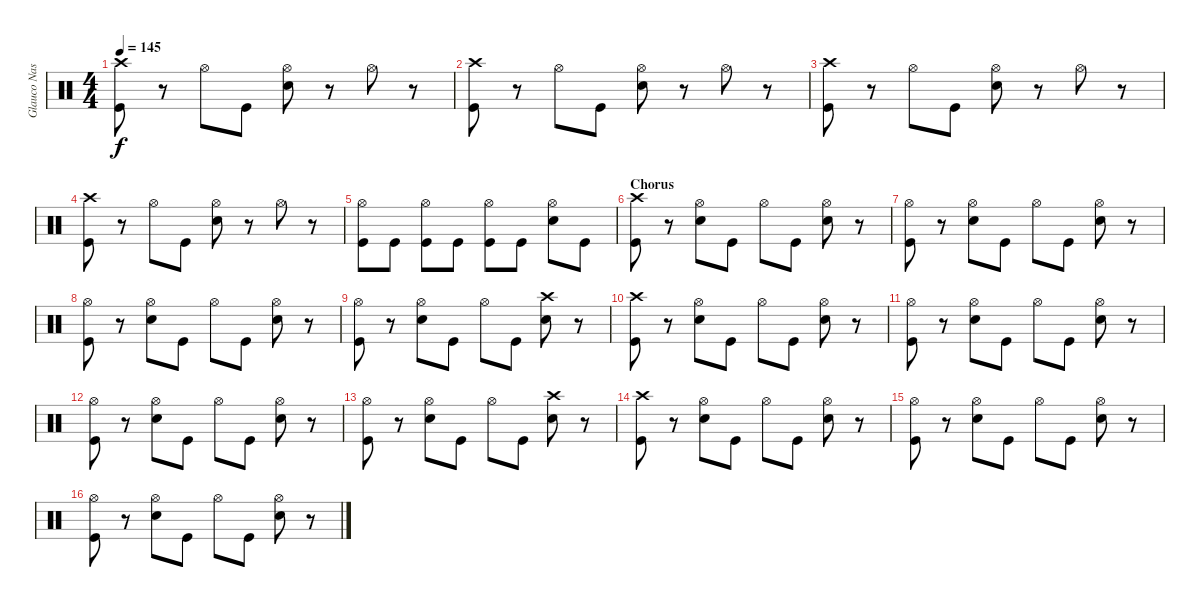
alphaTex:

\track ("Glauco Nastácia" "Glauco Nas") {instrument percussion}
\staff {score}
\articulation defaults
\ts (4 4)
\tempo 145
\clef neutral
\ks c
("Crash high (hit)" "Kick (hit)").8{dy f} r.8 "Hi-Hat (open)".8 "Kick (hit)".8 ("Hi-Hat (open)" "Electric Snare (hit)").8 r.8 "Hi-Hat (open)".8 r.8 |
("Crash high (hit)" "Kick (hit)").8 r.8 "Hi-Hat (open)".8 "Kick (hit)".8 ("Hi-Hat (open)" "Electric Snare (hit)").8 r.8 "Hi-Hat (open)".8 r.8 |
("Crash high (hit)" "Kick (hit)").8 r.8 "Hi-Hat (open)".8 "Kick (hit)".8 ("Hi-Hat (open)" "Electric Snare (hit)").8 r.8 "Hi-Hat (open)".8 r.8 |
("Crash high (hit)" "Kick (hit)").8 r.8 "Hi-Hat (open)".8 "Kick (hit)".8 ("Hi-Hat (open)" "Electric Snare (hit)").8 r.8 "Hi-Hat (open)".8 r.8 |
("Hi-Hat (open)" "Kick (hit)").8 "Kick (hit)".8 ("Hi-Hat (open)" "Kick (hit)").8 "Kick (hit)".8 ("Hi-Hat (open)" "Kick (hit)").8 "Kick (hit)".8 ("Hi-Hat (open)" "Electric Snare (hit)").8 "Kick (hit)".8 |
\section ("" "Chorus")
("Crash high (hit)" "Kick (hit)").8 r.8 ("Hi-Hat (open)" "Electric Snare (hit)").8 "Kick (hit)".8 "Hi-Hat (open)".8 "Kick (hit)".8 ("Hi-Hat (open)" "Electric Snare (hit)").8 r.8 |
("Hi-Hat (open)" "Kick (hit)").8 r.8 ("Hi-Hat (open)" "Electric Snare (hit)").8 "Kick (hit)".8 "Hi-Hat (open)".8 "Kick (hit)".8 ("Hi-Hat (open)" "Electric Snare (hit)").8 r.8 |
("Hi-Hat (open)" "Kick (hit)").8 r.8 ("Hi-Hat (open)" "Electric Snare (hit)").8 "Kick (hit)".8 "Hi-Hat (open)".8 "Kick (hit)".8 ("Hi-Hat (open)" "Electric Snare (hit)").8 r.8 |
("Hi-Hat (open)" "Kick (hit)").8 r.8 ("Hi-Hat (open)" "Electric Snare (hit)").8 "Kick (hit)".8 "Hi-Hat (open)".8 "Kick (hit)".8 ("Crash high (hit)" "Electric Snare (hit)").8 r.8 |
("Crash high (hit)" "Kick (hit)").8 r.8 ("Hi-Hat (open)" "Electric Snare (hit)").8 "Kick (hit)".8 "Hi-Hat (open)".8 "Kick (hit)".8 ("Hi-Hat (open)" "Electric Snare (hit)").8 r.8 |
("Hi-Hat (open)" "Kick (hit)").8 r.8 ("Hi-Hat (open)" "Electric Snare (hit)").8 "Kick (hit)".8 "Hi-Hat (open)".8 "Kick (hit)".8 ("Hi-Hat (open)" "Electric Snare (hit)").8 r.8 |
("Hi-Hat (open)" "Kick (hit)").8 r.8 ("Hi-Hat (open)" "Electric Snare (hit)").8 "Kick (hit)".8 "Hi-Hat (open)".8 "Kick (hit)".8 ("Hi-Hat (open)" "Electric Snare (hit)").8 r.8 |
("Hi-Hat (open)" "Kick (hit)").8 r.8 ("Hi-Hat (open)" "Electric Snare (hit)").8 "Kick (hit)".8 "Hi-Hat (open)".8 "Kick (hit)".8 ("Crash high (hit)" "Electric Snare (hit)").8 r.8 |
("Crash high (hit)" "Kick (hit)").8 r.8 ("Hi-Hat (open)" "Electric Snare (hit)").8 "Kick (hit)".8 "Hi-Hat (open)".8 "Kick (hit)".8 ("Hi-Hat (open)" "Electric Snare (hit)").8 r.8 |
("Hi-Hat (open)" "Kick (hit)").8 r.8 ("Hi-Hat (open)" "Electric Snare (hit)").8 "Kick (hit)".8 "Hi-Hat (open)".8 "Kick (hit)".8 ("Hi-Hat (open)" "Electric Snare (hit)").8 r.8 |
("Hi-Hat (open)" "Kick (hit)").8 r.8 ("Hi-Hat (open)" "Electric Snare (hit)").8 "Kick (hit)".8 "Hi-Hat (open)".8 "Kick (hit)".8 ("Hi-Hat (open)" "Electric Snare (hit)").8 r.8
